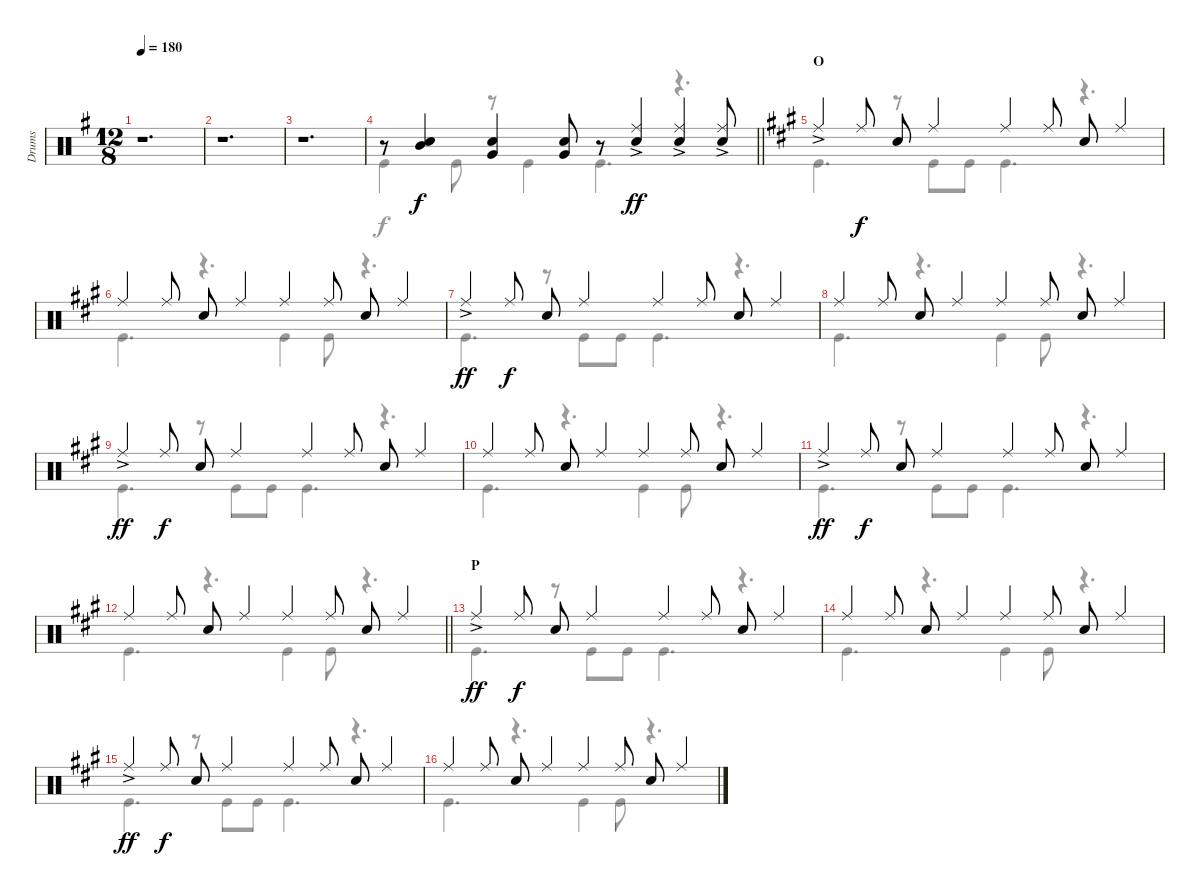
\track ("Drums" "Drums") {instrument percussion}
\staff {score}
\articulation defaults
\voice
\ts (12 8)
\tempo 180
\clef neutral
\ks g
r.1{d dy f} |
r.1{d} |
r.1{d} |
\barLineRight lightlight
r.8 ("Mid Tom (hit)" "Snare (hit) 2").4 ("Snare (hit) 2" "Very Low Tom (hit)").4 ("Snare (hit) 2" "Very Low Tom (hit)").8 r.8 ("Ride (middle)"{ac} "Snare (hit) 2").4{dy ff} ("Ride (middle)"{ac} "Snare (hit) 2").4 ("Ride (middle)"{ac} "Snare (hit) 2").8 |
\section ("" "O")
\ks a "Ride (middle)"{ac}.4 "Ride (middle)".8{dy f} "Snare (hit) 2".8 "Ride (middle)".4 "Ride (middle)".4 "Ride (middle)".8 "Snare (hit) 2".8 "Ride (middle)".4
|
"Ride (middle)".4 "Ride (middle)".8 "Snare (hit) 2".8 "Ride (middle)".4 "Ride (middle)".4 "Ride (middle)".8 "Snare (hit) 2".8 "Ride (middle)".4 |
"Ride (middle)"{ac}.4{dy ff} "Ride (middle)".8{dy f} "Snare (hit) 2".8 "Ride (middle)".4 "Ride (middle)".4 "Ride (middle)".8 "Snare (hit) 2".8 "Ride (middle)".4 |
"Ride (middle)".4 "Ride (middle)".8 "Snare (hit) 2".8 "Ride (middle)".4 "Ride (middle)".4 "Ride (middle)".8 "Snare (hit) 2".8 "Ride (middle)".4 |
"Ride (middle)"{ac}.4{dy ff} "Ride (middle)".8{dy f} "Snare (hit) 2".8 "Ride (middle)".4 "Ride (middle)".4 "Ride (middle)".8 "Snare (hit) 2".8 "Ride (middle)".4 |
"Ride (middle)".4 "Ride (middle)".8 "Snare (hit) 2".8 "Ride (middle)".4 "Ride (middle)".4 "Ride (middle)".8 "Snare (hit) 2".8 "Ride (middle)".4 |
"Ride (middle)"{ac}.4{dy ff} "Ride (middle)".8{dy f} "Snare (hit) 2".8 "Ride (middle)".4 "Ride (middle)".4 "Ride (middle)".8 "Snare (hit) 2".8 "Ride (middle)".4 |
\barLineRight lightlight "Ride (middle)".4 "Ride (middle)".8 "Snare (hit) 2".8 "Ride (middle)".4 "Ride (middle)".4 "Ride (middle)".8 "Snare (hit) 2".8 "Ride (middle)".4
|
\section ("" "P")
"Ride (middle)"{ac}.4{dy ff} "Ride (middle)".8{dy f} "Snare (hit) 2".8 "Ride (middle)".4 "Ride (middle)".4 "Ride (middle)".8 "Snare (hit) 2".8 "Ride (middle)".4 |
"Ride (middle)".4 "Ride (middle)".8 "Snare (hit) 2".8 "Ride (middle)".4 "Ride (middle)".4 "Ride (middle)".8 "Snare (hit) 2".8 "Ride (middle)".4 |
"Ride (middle)"{ac}.4{dy ff} "Ride (middle)".8{dy f} "Snare (hit) 2".8 "Ride (middle)".4 "Ride (middle)".4 "Ride (middle)".8 "Snare (hit) 2".8 "Ride (middle)".4 |
"Ride (middle)".4 "Ride (middle)".8 "Snare (hit) 2".8 "Ride (middle)".4 "Ride (middle)".4 "Ride (middle)".8 "Snare (hit) 2".8 "Ride (middle)".4
\voice
\clef neutral
\ottava regular
\simile none
\ks g
|
|
|
\barLineRight lightlight "Kick (hit)".4 "Kick (hit)".8
r.8 "Kick (hit)".4 "Kick (hit)".4{d} r.4{d} |
\ks a "Kick (hit)".4{d}
r.8 "Kick (hit)".8 "Kick (hit)".8 "Kick (hit)".4{d} r.4{d} |
"Kick (hit)".4{d} r.4{d} "Kick (hit)".4 "Kick (hit)".8 r.4{d} |
"Kick (hit)".4{d} r.8 "Kick (hit)".8 "Kick (hit)".8 "Kick (hit)".4{d} r.4{d} |
"Kick (hit)".4{d} r.4{d} "Kick (hit)".4 "Kick (hit)".8 r.4{d} |
"Kick (hit)".4{d} r.8 "Kick (hit)".8 "Kick (hit)".8 "Kick (hit)".4{d} r.4{d} |
"Kick (hit)".4{d} r.4{d} "Kick (hit)".4 "Kick (hit)".8 r.4{d} |
"Kick (hit)".4{d} r.8 "Kick (hit)".8 "Kick (hit)".8 "Kick (hit)".4{d} r.4{d} |
\barLineRight lightlight "Kick (hit)".4{d}
r.4{d} "Kick (hit)".4 "Kick (hit)".8 r.4{d} |
"Kick (hit)".4{d} r.8 "Kick (hit)".8 "Kick (hit)".8 "Kick (hit)".4{d} r.4{d} |
"Kick (hit)".4{d} r.4{d} "Kick (hit)".4 "Kick (hit)".8 r.4{d} |
"Kick (hit)".4{d} r.8 "Kick (hit)".8 "Kick (hit)".8 "Kick (hit)".4{d} r.4{d} |
"Kick (hit)".4{d} r.4{d} "Kick (hit)".4 "Kick (hit)".8 r.4{d}
